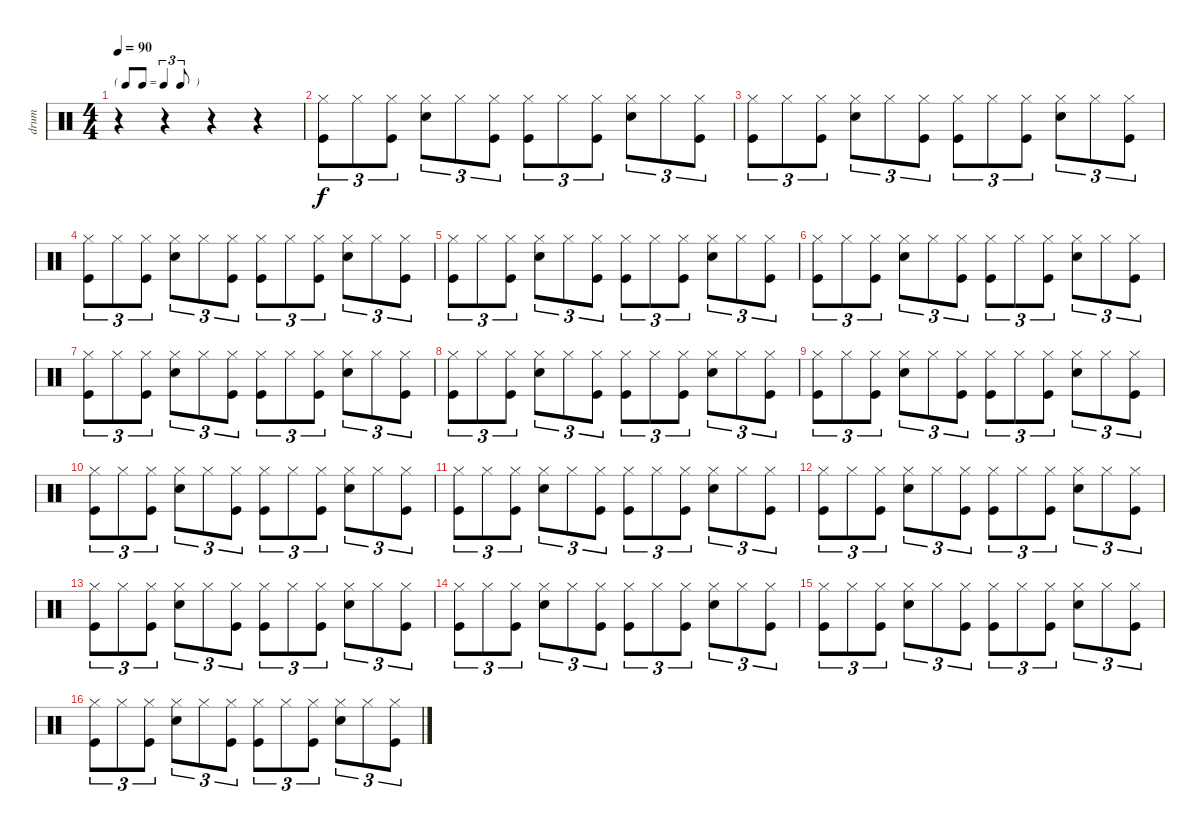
\track ("drum" "drum") {instrument percussion}
\staff {score}
\articulation defaults
\ts (4 4)
\tf triplet8th
\tempo 90
\clef neutral
\ks c
r.4{dy f} r.4 r.4 r.4 |
("Hi-Hat (closed)" "Kick (hit)").8{tu (3 2)} "Hi-Hat (closed)".8{tu (3 2)} ("Hi-Hat (closed)" "Kick (hit)").8{tu (3 2)} ("Hi-Hat (closed)" "Snare (hit) 2").8{tu (3 2)} "Hi-Hat (closed)".8{tu (3 2)} ("Hi-Hat (closed)" "Kick (hit)").8{tu (3 2)} ("Hi-Hat (closed)" "Kick (hit)").8{tu (3 2)} "Hi-Hat (closed)".8{tu (3 2)} ("Hi-Hat (closed)" "Kick (hit)").8{tu (3 2)} ("Hi-Hat (closed)" "Snare (hit) 2").8{tu (3 2)} "Hi-Hat (closed)".8{tu (3 2)} ("Hi-Hat (closed)" "Kick (hit)").8{tu (3 2)} |
("Hi-Hat (closed)" "Kick (hit)").8{tu (3 2)} "Hi-Hat (closed)".8{tu (3 2)} ("Hi-Hat (closed)" "Kick (hit)").8{tu (3 2)} ("Hi-Hat (closed)" "Snare (hit) 2").8{tu (3 2)} "Hi-Hat (closed)".8{tu (3 2)} ("Hi-Hat (closed)" "Kick (hit)").8{tu (3 2)} ("Hi-Hat (closed)" "Kick (hit)").8{tu (3 2)} "Hi-Hat (closed)".8{tu (3 2)} ("Hi-Hat (closed)" "Kick (hit)").8{tu (3 2)} ("Hi-Hat (closed)" "Snare (hit) 2").8{tu (3 2)} "Hi-Hat (closed)".8{tu (3 2)} ("Hi-Hat (closed)" "Kick (hit)").8{tu (3 2)} |
("Hi-Hat (closed)" "Kick (hit)").8{tu (3 2)} "Hi-Hat (closed)".8{tu (3 2)} ("Hi-Hat (closed)" "Kick (hit)").8{tu (3 2)} ("Hi-Hat (closed)" "Snare (hit) 2").8{tu (3 2)} "Hi-Hat (closed)".8{tu (3 2)} ("Hi-Hat (closed)" "Kick (hit)").8{tu (3 2)} ("Hi-Hat (closed)" "Kick (hit)").8{tu (3 2)} "Hi-Hat (closed)".8{tu (3 2)} ("Hi-Hat (closed)" "Kick (hit)").8{tu (3 2)} ("Hi-Hat (closed)" "Snare (hit) 2").8{tu (3 2)} "Hi-Hat (closed)".8{tu (3 2)} ("Hi-Hat (closed)" "Kick (hit)").8{tu (3 2)} |
("Hi-Hat (closed)" "Kick (hit)").8{tu (3 2)} "Hi-Hat (closed)".8{tu (3 2)} ("Hi-Hat (closed)" "Kick (hit)").8{tu (3 2)} ("Hi-Hat (closed)" "Snare (hit) 2").8{tu (3 2)} "Hi-Hat (closed)".8{tu (3 2)} ("Hi-Hat (closed)" "Kick (hit)").8{tu (3 2)} ("Hi-Hat (closed)" "Kick (hit)").8{tu (3 2)} "Hi-Hat (closed)".8{tu (3 2)} ("Hi-Hat (closed)" "Kick (hit)").8{tu (3 2)} ("Hi-Hat (closed)" "Snare (hit) 2").8{tu (3 2)} "Hi-Hat (closed)".8{tu (3 2)} ("Hi-Hat (closed)" "Kick (hit)").8{tu (3 2)} |
("Hi-Hat (closed)" "Kick (hit)").8{tu (3 2)} "Hi-Hat (closed)".8{tu (3 2)} ("Hi-Hat (closed)" "Kick (hit)").8{tu (3 2)} ("Hi-Hat (closed)" "Snare (hit) 2").8{tu (3 2)} "Hi-Hat (closed)".8{tu (3 2)} ("Hi-Hat (closed)" "Kick (hit)").8{tu (3 2)} ("Hi-Hat (closed)" "Kick (hit)").8{tu (3 2)} "Hi-Hat (closed)".8{tu (3 2)} ("Hi-Hat (closed)" "Kick (hit)").8{tu (3 2)} ("Hi-Hat (closed)" "Snare (hit) 2").8{tu (3 2)} "Hi-Hat (closed)".8{tu (3 2)} ("Hi-Hat (closed)" "Kick (hit)").8{tu (3 2)} |
("Hi-Hat (closed)" "Kick (hit)").8{tu (3 2)} "Hi-Hat (closed)".8{tu (3 2)} ("Hi-Hat (closed)" "Kick (hit)").8{tu (3 2)} ("Hi-Hat (closed)" "Snare (hit) 2").8{tu (3 2)} "Hi-Hat (closed)".8{tu (3 2)} ("Hi-Hat (closed)" "Kick (hit)").8{tu (3 2)} ("Hi-Hat (closed)" "Kick (hit)").8{tu (3 2)} "Hi-Hat (closed)".8{tu (3 2)} ("Hi-Hat (closed)" "Kick (hit)").8{tu (3 2)} ("Hi-Hat (closed)" "Snare (hit) 2").8{tu (3 2)} "Hi-Hat (closed)".8{tu (3 2)} ("Hi-Hat (closed)" "Kick (hit)").8{tu (3 2)} |
("Hi-Hat (closed)" "Kick (hit)").8{tu (3 2)} "Hi-Hat (closed)".8{tu (3 2)} ("Hi-Hat (closed)" "Kick (hit)").8{tu (3 2)} ("Hi-Hat (closed)" "Snare (hit) 2").8{tu (3 2)} "Hi-Hat (closed)".8{tu (3 2)} ("Hi-Hat (closed)" "Kick (hit)").8{tu (3 2)} ("Hi-Hat (closed)" "Kick (hit)").8{tu (3 2)} "Hi-Hat (closed)".8{tu (3 2)} ("Hi-Hat (closed)" "Kick (hit)").8{tu (3 2)} ("Hi-Hat (closed)" "Snare (hit) 2").8{tu (3 2)} "Hi-Hat (closed)".8{tu (3 2)} ("Hi-Hat (closed)" "Kick (hit)").8{tu (3 2)} |
("Hi-Hat (closed)" "Kick (hit)").8{tu (3 2)} "Hi-Hat (closed)".8{tu (3 2)} ("Hi-Hat (closed)" "Kick (hit)").8{tu (3 2)} ("Hi-Hat (closed)" "Snare (hit) 2").8{tu (3 2)} "Hi-Hat (closed)".8{tu (3 2)} ("Hi-Hat (closed)" "Kick (hit)").8{tu (3 2)} ("Hi-Hat (closed)" "Kick (hit)").8{tu (3 2)} "Hi-Hat (closed)".8{tu (3 2)} ("Hi-Hat (closed)" "Kick (hit)").8{tu (3 2)} ("Hi-Hat (closed)" "Snare (hit) 2").8{tu (3 2)} "Hi-Hat (closed)".8{tu (3 2)} ("Hi-Hat (closed)" "Kick (hit)").8{tu (3 2)} |
("Hi-Hat (closed)" "Kick (hit)").8{tu (3 2)} "Hi-Hat (closed)".8{tu (3 2)} ("Hi-Hat (closed)" "Kick (hit)").8{tu (3 2)} ("Hi-Hat (closed)" "Snare (hit) 2").8{tu (3 2)} "Hi-Hat (closed)".8{tu (3 2)} ("Hi-Hat (closed)" "Kick (hit)").8{tu (3 2)} ("Hi-Hat (closed)" "Kick (hit)").8{tu (3 2)} "Hi-Hat (closed)".8{tu (3 2)} ("Hi-Hat (closed)" "Kick (hit)").8{tu (3 2)} ("Hi-Hat (closed)" "Snare (hit) 2").8{tu (3 2)} "Hi-Hat (closed)".8{tu (3 2)} ("Hi-Hat (closed)" "Kick (hit)").8{tu (3 2)} |
("Hi-Hat (closed)" "Kick (hit)").8{tu (3 2)} "Hi-Hat (closed)".8{tu (3 2)} ("Hi-Hat (closed)" "Kick (hit)").8{tu (3 2)} ("Hi-Hat (closed)" "Snare (hit) 2").8{tu (3 2)} "Hi-Hat (closed)".8{tu (3 2)} ("Hi-Hat (closed)" "Kick (hit)").8{tu (3 2)} ("Hi-Hat (closed)" "Kick (hit)").8{tu (3 2)} "Hi-Hat (closed)".8{tu (3 2)} ("Hi-Hat (closed)" "Kick (hit)").8{tu (3 2)} ("Hi-Hat (closed)" "Snare (hit) 2").8{tu (3 2)} "Hi-Hat (closed)".8{tu (3 2)} ("Hi-Hat (closed)" "Kick (hit)").8{tu (3 2)} |
("Hi-Hat (closed)" "Kick (hit)").8{tu (3 2)} "Hi-Hat (closed)".8{tu (3 2)} ("Hi-Hat (closed)" "Kick (hit)").8{tu (3 2)} ("Hi-Hat (closed)" "Snare (hit) 2").8{tu (3 2)} "Hi-Hat (closed)".8{tu (3 2)} ("Hi-Hat (closed)" "Kick (hit)").8{tu (3 2)} ("Hi-Hat (closed)" "Kick (hit)").8{tu (3 2)} "Hi-Hat (closed)".8{tu (3 2)} ("Hi-Hat (closed)" "Kick (hit)").8{tu (3 2)} ("Hi-Hat (closed)" "Snare (hit) 2").8{tu (3 2)} "Hi-Hat (closed)".8{tu (3 2)} ("Hi-Hat (closed)" "Kick (hit)").8{tu (3 2)} |
("Hi-Hat (closed)" "Kick (hit)").8{tu (3 2)} "Hi-Hat (closed)".8{tu (3 2)} ("Hi-Hat (closed)" "Kick (hit)").8{tu (3 2)} ("Hi-Hat (closed)" "Snare (hit) 2").8{tu (3 2)} "Hi-Hat (closed)".8{tu (3 2)} ("Hi-Hat (closed)" "Kick (hit)").8{tu (3 2)} ("Hi-Hat (closed)" "Kick (hit)").8{tu (3 2)} "Hi-Hat (closed)".8{tu (3 2)} ("Hi-Hat (closed)" "Kick (hit)").8{tu (3 2)} ("Hi-Hat (closed)" "Snare (hit) 2").8{tu (3 2)} "Hi-Hat (closed)".8{tu (3 2)} ("Hi-Hat (closed)" "Kick (hit)").8{tu (3 2)} |
("Hi-Hat (closed)" "Kick (hit)").8{tu (3 2)} "Hi-Hat (closed)".8{tu (3 2)} ("Hi-Hat (closed)" "Kick (hit)").8{tu (3 2)} ("Hi-Hat (closed)" "Snare (hit) 2").8{tu (3 2)} "Hi-Hat (closed)".8{tu (3 2)} ("Hi-Hat (closed)" "Kick (hit)").8{tu (3 2)} ("Hi-Hat (closed)" "Kick (hit)").8{tu (3 2)} "Hi-Hat (closed)".8{tu (3 2)} ("Hi-Hat (closed)" "Kick (hit)").8{tu (3 2)} ("Hi-Hat (closed)" "Snare (hit) 2").8{tu (3 2)} "Hi-Hat (closed)".8{tu (3 2)} ("Hi-Hat (closed)" "Kick (hit)").8{tu (3 2)} |
("Hi-Hat (closed)" "Kick (hit)").8{tu (3 2)} "Hi-Hat (closed)".8{tu (3 2)} ("Hi-Hat (closed)" "Kick (hit)").8{tu (3 2)} ("Hi-Hat (closed)" "Snare (hit) 2").8{tu (3 2)} "Hi-Hat (closed)".8{tu (3 2)} ("Hi-Hat (closed)" "Kick (hit)").8{tu (3 2)} ("Hi-Hat (closed)" "Kick (hit)").8{tu (3 2)} "Hi-Hat (closed)".8{tu (3 2)} ("Hi-Hat (closed)" "Kick (hit)").8{tu (3 2)} ("Hi-Hat (closed)" "Snare (hit) 2").8{tu (3 2)} "Hi-Hat (closed)".8{tu (3 2)} ("Hi-Hat (closed)" "Kick (hit)").8{tu (3 2)} |
("Hi-Hat (closed)" "Kick (hit)").8{tu (3 2)} "Hi-Hat (closed)".8{tu (3 2)} ("Hi-Hat (closed)" "Kick (hit)").8{tu (3 2)} ("Hi-Hat (closed)" "Snare (hit) 2").8{tu (3 2)} "Hi-Hat (closed)".8{tu (3 2)} ("Hi-Hat (closed)" "Kick (hit)").8{tu (3 2)} ("Hi-Hat (closed)" "Kick (hit)").8{tu (3 2)} "Hi-Hat (closed)".8{tu (3 2)} ("Hi-Hat (closed)" "Kick (hit)").8{tu (3 2)} ("Hi-Hat (closed)" "Snare (hit) 2").8{tu (3 2)} "Hi-Hat (closed)".8{tu (3 2)} ("Hi-Hat (closed)" "Kick (hit)").8{tu (3 2)}
